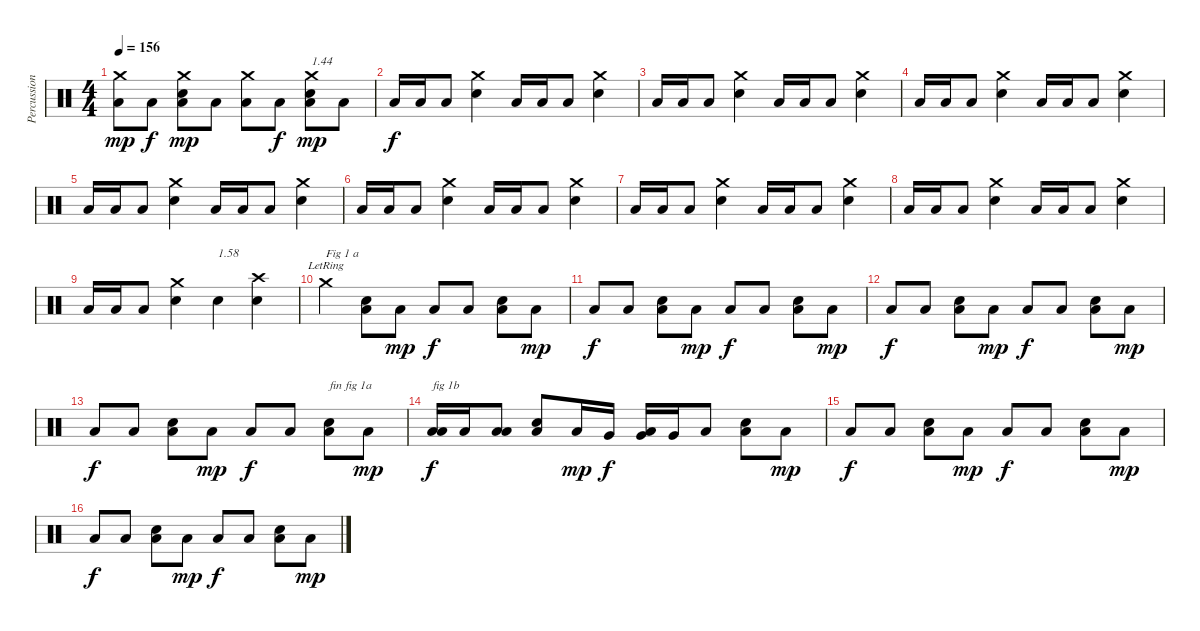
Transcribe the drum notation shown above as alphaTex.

\track ("Percussions" "Percussion") {instrument percussion}
\staff {score}
\articulation defaults
\ts (4 4)
\tempo 156
\clef neutral
\ks c
("Low Floor Tom (hit)" "Crash medium (hit)").8{dy mp} "Low Floor Tom (hit)".8{dy f} ("Low Floor Tom (hit)" "Snare (hit) 2" "Crash medium (hit)").8{dy mp} "Low Floor Tom (hit)".8 ("Low Floor Tom (hit)" "Crash medium (hit)").8 "Low Floor Tom (hit)".8{dy f} ("Low Floor Tom (hit)" "Snare (hit) 2" "Crash medium (hit)").8{txt "1.44" dy mp} "Low Floor Tom (hit)".8 |
"Low Tom (hit)".16{dy f} "Low Tom (hit)".16 "Low Tom (hit)".8 ("Snare (hit) 2" "Crash medium (hit)").4 "Low Tom (hit)".16 "Low Tom (hit)".16 "Low Tom (hit)".8 ("Snare (hit) 2" "Crash medium (hit)").4 |
"Low Tom (hit)".16 "Low Tom (hit)".16 "Low Tom (hit)".8 ("Snare (hit) 2" "Crash medium (hit)").4 "Low Tom (hit)".16 "Low Tom (hit)".16 "Low Tom (hit)".8 ("Snare (hit) 2" "Crash medium (hit)").4 |
"Low Tom (hit)".16 "Low Tom (hit)".16 "Low Tom (hit)".8 ("Snare (hit) 2" "Crash medium (hit)").4 "Low Tom (hit)".16 "Low Tom (hit)".16 "Low Tom (hit)".8 ("Snare (hit) 2" "Crash medium (hit)").4 |
"Low Tom (hit)".16 "Low Tom (hit)".16 "Low Tom (hit)".8 ("Snare (hit) 2" "Crash medium (hit)").4 "Low Tom (hit)".16 "Low Tom (hit)".16 "Low Tom (hit)".8 ("Snare (hit) 2" "Crash medium (hit)").4 |
"Low Tom (hit)".16 "Low Tom (hit)".16 "Low Tom (hit)".8 ("Snare (hit) 2" "Crash medium (hit)").4 "Low Tom (hit)".16 "Low Tom (hit)".16 "Low Tom (hit)".8 ("Snare (hit) 2" "Crash medium (hit)").4 |
"Low Tom (hit)".16 "Low Tom (hit)".16 "Low Tom (hit)".8 ("Snare (hit) 2" "Crash medium (hit)").4 "Low Tom (hit)".16 "Low Tom (hit)".16 "Low Tom (hit)".8 ("Snare (hit) 2" "Crash medium (hit)").4 |
"Low Tom (hit)".16 "Low Tom (hit)".16 "Low Tom (hit)".8 ("Snare (hit) 2" "Crash medium (hit)").4 "Low Tom (hit)".16 "Low Tom (hit)".16 "Low Tom (hit)".8 ("Snare (hit) 2" "Crash medium (hit)").4 |
"Low Tom (hit)".16 "Low Tom (hit)".16 "Low Tom (hit)".8 ("Snare (hit) 2" "Crash medium (hit)").4 "Snare (hit) 2".4{txt "1.58"} ("Snare (hit) 2" "Crash high (hit)").4 |
"Crash medium (hit)"{lr}.4{txt "Fig 1 a"} ("Low Floor Tom (hit)" "Snare (hit) 2").8 "Low Floor Tom (hit)".8{dy mp} "Low Floor Tom (hit)".8{dy f} "Low Floor Tom (hit)".8 ("Low Floor Tom (hit)" "Snare (hit) 2").8 "Low Floor Tom (hit)".8{dy mp} |
"Low Floor Tom (hit)".8{dy f} "Low Floor Tom (hit)".8 ("Low Floor Tom (hit)" "Snare (hit) 2").8 "Low Floor Tom (hit)".8{dy mp} "Low Floor Tom (hit)".8{dy f} "Low Floor Tom (hit)".8 ("Low Floor Tom (hit)" "Snare (hit) 2").8 "Low Floor Tom (hit)".8{dy mp} |
"Low Floor Tom (hit)".8{dy f} "Low Floor Tom (hit)".8 ("Low Floor Tom (hit)" "Snare (hit) 2").8 "Low Floor Tom (hit)".8{dy mp} "Low Floor Tom (hit)".8{dy f} "Low Floor Tom (hit)".8 ("Low Floor Tom (hit)" "Snare (hit) 2").8 "Low Floor Tom (hit)".8{dy mp} |
"Low Floor Tom (hit)".8{dy f} "Low Floor Tom (hit)".8 ("Low Floor Tom (hit)" "Snare (hit) 2").8 "Low Floor Tom (hit)".8{dy mp} "Low Floor Tom (hit)".8{dy f} "Low Floor Tom (hit)".8 ("Low Floor Tom (hit)" "Snare (hit) 2").8{txt "fin fig 1a"} "Low Floor Tom (hit)".8{dy mp} |
("Low Floor Tom (hit)" "Low Tom (hit)").16{txt "fig 1b" dy f} "Low Tom (hit)".16 ("Low Floor Tom (hit)" "Low Tom (hit)").8 ("Low Floor Tom (hit)" "Snare (hit) 2").8 "Low Floor Tom (hit)".16{dy mp} "Very Low Tom (hit)".16{dy f} ("Low Floor Tom (hit)" "Very Low Tom (hit)").16 "Very Low Tom (hit)".16 "Low Floor Tom (hit)".8 ("Low Floor Tom (hit)" "Snare (hit) 2").8 "Low Floor Tom (hit)".8{dy mp} |
"Low Floor Tom (hit)".8{dy f} "Low Floor Tom (hit)".8 ("Low Floor Tom (hit)" "Snare (hit) 2").8 "Low Floor Tom (hit)".8{dy mp} "Low Floor Tom (hit)".8{dy f} "Low Floor Tom (hit)".8 ("Low Floor Tom (hit)" "Snare (hit) 2").8 "Low Floor Tom (hit)".8{dy mp} |
"Low Floor Tom (hit)".8{dy f} "Low Floor Tom (hit)".8 ("Low Floor Tom (hit)" "Snare (hit) 2").8 "Low Floor Tom (hit)".8{dy mp} "Low Floor Tom (hit)".8{dy f} "Low Floor Tom (hit)".8 ("Low Floor Tom (hit)" "Snare (hit) 2").8 "Low Floor Tom (hit)".8{dy mp}
